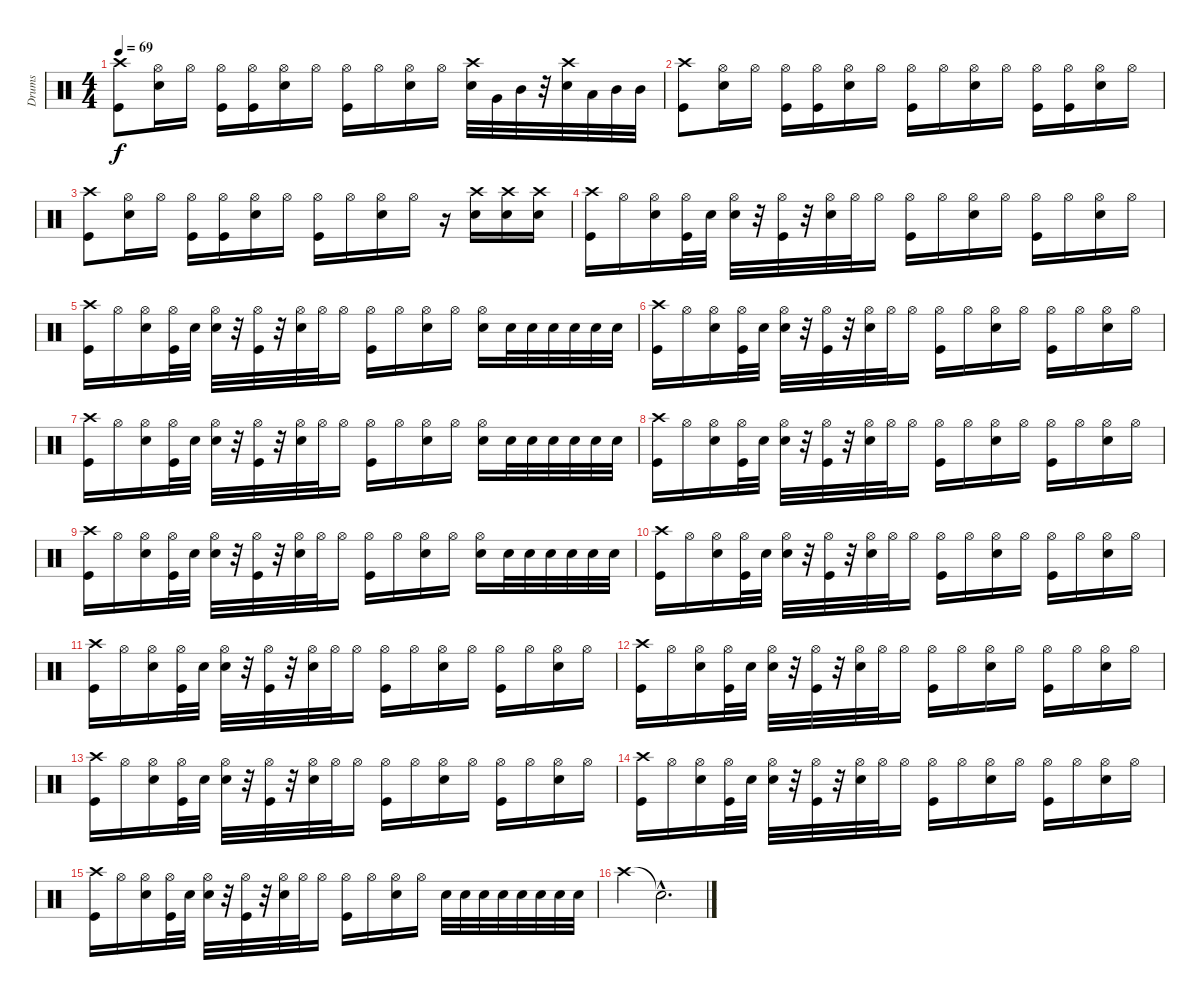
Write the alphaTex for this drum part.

\track ("Drums" "Drums") {instrument percussion}
\staff {score}
\articulation defaults
\ts (4 4)
\tempo 69
\clef neutral
\ks c
("Crash high (hit)" "Kick (hit)").8{dy f} ("Hi-Hat (open)" "Snare (hit) 2").16 "Hi-Hat (open)".16 ("Hi-Hat (open)" "Kick (hit)").16 ("Hi-Hat (open)" "Kick (hit)").16 ("Hi-Hat (open)" "Snare (hit) 2").16 "Hi-Hat (open)".16 ("Hi-Hat (open)" "Kick (hit)").16 "Hi-Hat (open)".16 ("Hi-Hat (open)" "Snare (hit) 2").16 "Hi-Hat (open)".16 ("Crash high (hit)" "Snare (hit) 2").32 "Very Low Tom (hit)".32 "Mid Tom (hit)".32 r.32 ("Crash high (hit)" "Snare (hit) 2").32 "Low Tom (hit)".32 "Mid Tom (hit)".32 "Mid Tom (hit)".32 |
("Crash high (hit)" "Kick (hit)").8 ("Hi-Hat (open)" "Snare (hit) 2").16 "Hi-Hat (open)".16 ("Hi-Hat (open)" "Kick (hit)").16 ("Hi-Hat (open)" "Kick (hit)").16 ("Hi-Hat (open)" "Snare (hit) 2").16 "Hi-Hat (open)".16 ("Hi-Hat (open)" "Kick (hit)").16 "Hi-Hat (open)".16 ("Hi-Hat (open)" "Snare (hit) 2").16 "Hi-Hat (open)".16 ("Hi-Hat (open)" "Kick (hit)").16 ("Hi-Hat (open)" "Kick (hit)").16 ("Hi-Hat (open)" "Snare (hit) 2").16 "Hi-Hat (open)".16 |
("Crash high (hit)" "Kick (hit)").8 ("Hi-Hat (open)" "Snare (hit) 2").16 "Hi-Hat (open)".16 ("Hi-Hat (open)" "Kick (hit)").16 ("Hi-Hat (open)" "Kick (hit)").16 ("Hi-Hat (open)" "Snare (hit) 2").16 "Hi-Hat (open)".16 ("Hi-Hat (open)" "Kick (hit)").16 "Hi-Hat (open)".16 ("Hi-Hat (open)" "Snare (hit) 2").16 "Hi-Hat (open)".16 r.16 ("Crash high (hit)" "Snare (hit) 2").16 ("Crash high (hit)" "Snare (hit) 2").16 ("Crash high (hit)" "Snare (hit) 2").16 |
("Crash high (hit)" "Kick (hit)").16 "Hi-Hat (open)".16 ("Hi-Hat (open)" "Snare (hit) 2").16 ("Hi-Hat (open)" "Kick (hit)").32 "Snare (hit) 2".32 ("Hi-Hat (open)" "Snare (hit) 2").32 r.32 ("Hi-Hat (open)" "Kick (hit)").32 r.32 ("Hi-Hat (open)" "Snare (hit) 2").32 "Hi-Hat (open)".32 "Hi-Hat (open)".16 ("Hi-Hat (open)" "Kick (hit)").16 "Hi-Hat (open)".16 ("Hi-Hat (open)" "Snare (hit) 2").16 "Hi-Hat (open)".16 ("Hi-Hat (open)" "Kick (hit)").16 "Hi-Hat (open)".16 ("Hi-Hat (open)" "Snare (hit) 2").16 "Hi-Hat (open)".16 |
("Crash high (hit)" "Kick (hit)").16 "Hi-Hat (open)".16 ("Hi-Hat (open)" "Snare (hit) 2").16 ("Hi-Hat (open)" "Kick (hit)").32 "Snare (hit) 2".32 ("Hi-Hat (open)" "Snare (hit) 2").32 r.32 ("Hi-Hat (open)" "Kick (hit)").32 r.32 ("Hi-Hat (open)" "Snare (hit) 2").32 "Hi-Hat (open)".32 "Hi-Hat (open)".16 ("Hi-Hat (open)" "Kick (hit)").16 "Hi-Hat (open)".16 ("Hi-Hat (open)" "Snare (hit) 2").16 "Hi-Hat (open)".16 ("Hi-Hat (open)" "Snare (hit) 2").16 "Snare (hit) 2".32 "Snare (hit) 2".32 "Snare (hit) 2".32 "Snare (hit) 2".32 "Snare (hit) 2".32 "Snare (hit) 2".32 |
("Crash high (hit)" "Kick (hit)").16 "Hi-Hat (open)".16 ("Hi-Hat (open)" "Snare (hit) 2").16 ("Hi-Hat (open)" "Kick (hit)").32 "Snare (hit) 2".32 ("Hi-Hat (open)" "Snare (hit) 2").32 r.32 ("Hi-Hat (open)" "Kick (hit)").32 r.32 ("Hi-Hat (open)" "Snare (hit) 2").32 "Hi-Hat (open)".32 "Hi-Hat (open)".16 ("Hi-Hat (open)" "Kick (hit)").16 "Hi-Hat (open)".16 ("Hi-Hat (open)" "Snare (hit) 2").16 "Hi-Hat (open)".16 ("Hi-Hat (open)" "Kick (hit)").16 "Hi-Hat (open)".16 ("Hi-Hat (open)" "Snare (hit) 2").16 "Hi-Hat (open)".16 |
("Crash high (hit)" "Kick (hit)").16 "Hi-Hat (open)".16 ("Hi-Hat (open)" "Snare (hit) 2").16 ("Hi-Hat (open)" "Kick (hit)").32 "Snare (hit) 2".32 ("Hi-Hat (open)" "Snare (hit) 2").32 r.32 ("Hi-Hat (open)" "Kick (hit)").32 r.32 ("Hi-Hat (open)" "Snare (hit) 2").32 "Hi-Hat (open)".32 "Hi-Hat (open)".16 ("Hi-Hat (open)" "Kick (hit)").16 "Hi-Hat (open)".16 ("Hi-Hat (open)" "Snare (hit) 2").16 "Hi-Hat (open)".16 ("Hi-Hat (open)" "Snare (hit) 2").16 "Snare (hit) 2".32 "Snare (hit) 2".32 "Snare (hit) 2".32 "Snare (hit) 2".32 "Snare (hit) 2".32 "Snare (hit) 2".32 |
("Crash high (hit)" "Kick (hit)").16 "Hi-Hat (open)".16 ("Hi-Hat (open)" "Snare (hit) 2").16 ("Hi-Hat (open)" "Kick (hit)").32 "Snare (hit) 2".32 ("Hi-Hat (open)" "Snare (hit) 2").32 r.32 ("Hi-Hat (open)" "Kick (hit)").32 r.32 ("Hi-Hat (open)" "Snare (hit) 2").32 "Hi-Hat (open)".32 "Hi-Hat (open)".16 ("Hi-Hat (open)" "Kick (hit)").16 "Hi-Hat (open)".16 ("Hi-Hat (open)" "Snare (hit) 2").16 "Hi-Hat (open)".16 ("Hi-Hat (open)" "Kick (hit)").16 "Hi-Hat (open)".16 ("Hi-Hat (open)" "Snare (hit) 2").16 "Hi-Hat (open)".16 |
("Crash high (hit)" "Kick (hit)").16 "Hi-Hat (open)".16 ("Hi-Hat (open)" "Snare (hit) 2").16 ("Hi-Hat (open)" "Kick (hit)").32 "Snare (hit) 2".32 ("Hi-Hat (open)" "Snare (hit) 2").32 r.32 ("Hi-Hat (open)" "Kick (hit)").32 r.32 ("Hi-Hat (open)" "Snare (hit) 2").32 "Hi-Hat (open)".32 "Hi-Hat (open)".16 ("Hi-Hat (open)" "Kick (hit)").16 "Hi-Hat (open)".16 ("Hi-Hat (open)" "Snare (hit) 2").16 "Hi-Hat (open)".16 ("Hi-Hat (open)" "Snare (hit) 2").16 "Snare (hit) 2".32 "Snare (hit) 2".32 "Snare (hit) 2".32 "Snare (hit) 2".32 "Snare (hit) 2".32 "Snare (hit) 2".32 |
("Crash high (hit)" "Kick (hit)").16 "Hi-Hat (open)".16 ("Hi-Hat (open)" "Snare (hit) 2").16 ("Hi-Hat (open)" "Kick (hit)").32 "Snare (hit) 2".32 ("Hi-Hat (open)" "Snare (hit) 2").32 r.32 ("Hi-Hat (open)" "Kick (hit)").32 r.32 ("Hi-Hat (open)" "Snare (hit) 2").32 "Hi-Hat (open)".32 "Hi-Hat (open)".16 ("Hi-Hat (open)" "Kick (hit)").16 "Hi-Hat (open)".16 ("Hi-Hat (open)" "Snare (hit) 2").16 "Hi-Hat (open)".16 ("Hi-Hat (open)" "Kick (hit)").16 "Hi-Hat (open)".16 ("Hi-Hat (open)" "Snare (hit) 2").16 "Hi-Hat (open)".16 |
("Crash high (hit)" "Kick (hit)").16 "Hi-Hat (open)".16 ("Hi-Hat (open)" "Snare (hit) 2").16 ("Hi-Hat (open)" "Kick (hit)").32 "Snare (hit) 2".32 ("Hi-Hat (open)" "Snare (hit) 2").32 r.32 ("Hi-Hat (open)" "Kick (hit)").32 r.32 ("Hi-Hat (open)" "Snare (hit) 2").32 "Hi-Hat (open)".32 "Hi-Hat (open)".16 ("Hi-Hat (open)" "Kick (hit)").16 "Hi-Hat (open)".16 ("Hi-Hat (open)" "Snare (hit) 2").16 "Hi-Hat (open)".16 ("Hi-Hat (open)" "Kick (hit)").16 "Hi-Hat (open)".16 ("Hi-Hat (open)" "Snare (hit) 2").16 "Hi-Hat (open)".16 |
("Crash high (hit)" "Kick (hit)").16 "Hi-Hat (open)".16 ("Hi-Hat (open)" "Snare (hit) 2").16 ("Hi-Hat (open)" "Kick (hit)").32 "Snare (hit) 2".32 ("Hi-Hat (open)" "Snare (hit) 2").32 r.32 ("Hi-Hat (open)" "Kick (hit)").32 r.32 ("Hi-Hat (open)" "Snare (hit) 2").32 "Hi-Hat (open)".32 "Hi-Hat (open)".16 ("Hi-Hat (open)" "Kick (hit)").16 "Hi-Hat (open)".16 ("Hi-Hat (open)" "Snare (hit) 2").16 "Hi-Hat (open)".16 ("Hi-Hat (open)" "Kick (hit)").16 "Hi-Hat (open)".16 ("Hi-Hat (open)" "Snare (hit) 2").16 "Hi-Hat (open)".16 |
("Crash high (hit)" "Kick (hit)").16 "Hi-Hat (open)".16 ("Hi-Hat (open)" "Snare (hit) 2").16 ("Hi-Hat (open)" "Kick (hit)").32 "Snare (hit) 2".32 ("Hi-Hat (open)" "Snare (hit) 2").32 r.32 ("Hi-Hat (open)" "Kick (hit)").32 r.32 ("Hi-Hat (open)" "Snare (hit) 2").32 "Hi-Hat (open)".32 "Hi-Hat (open)".16 ("Hi-Hat (open)" "Kick (hit)").16 "Hi-Hat (open)".16 ("Hi-Hat (open)" "Snare (hit) 2").16 "Hi-Hat (open)".16 ("Hi-Hat (open)" "Kick (hit)").16 "Hi-Hat (open)".16 ("Hi-Hat (open)" "Snare (hit) 2").16 "Hi-Hat (open)".16 |
("Crash high (hit)" "Kick (hit)").16 "Hi-Hat (open)".16 ("Hi-Hat (open)" "Snare (hit) 2").16 ("Hi-Hat (open)" "Kick (hit)").32 "Snare (hit) 2".32 ("Hi-Hat (open)" "Snare (hit) 2").32 r.32 ("Hi-Hat (open)" "Kick (hit)").32 r.32 ("Hi-Hat (open)" "Snare (hit) 2").32 "Hi-Hat (open)".32 "Hi-Hat (open)".16 ("Hi-Hat (open)" "Kick (hit)").16 "Hi-Hat (open)".16 ("Hi-Hat (open)" "Snare (hit) 2").16 "Hi-Hat (open)".16 ("Hi-Hat (open)" "Kick (hit)").16 "Hi-Hat (open)".16 ("Hi-Hat (open)" "Snare (hit) 2").16 "Hi-Hat (open)".16 |
("Crash high (hit)" "Kick (hit)").16 "Hi-Hat (open)".16 ("Hi-Hat (open)" "Snare (hit) 2").16 ("Hi-Hat (open)" "Kick (hit)").32 "Snare (hit) 2".32 ("Hi-Hat (open)" "Snare (hit) 2").32 r.32 ("Hi-Hat (open)" "Kick (hit)").32 r.32 ("Hi-Hat (open)" "Snare (hit) 2").32 "Hi-Hat (open)".32 "Hi-Hat (open)".16 ("Hi-Hat (open)" "Kick (hit)").16 "Hi-Hat (open)".16 ("Hi-Hat (open)" "Snare (hit) 2").16 "Hi-Hat (open)".16 "Snare (hit) 2".32 "Snare (hit) 2".32 "Snare (hit) 2".32 "Snare (hit) 2".32 "Snare (hit) 2".32 "Snare (hit) 2".32 "Snare (hit) 2".32 "Snare (hit) 2".32 |
"Crash high (hit)".4 "Snare (hit)"{hac t}.2{d}
